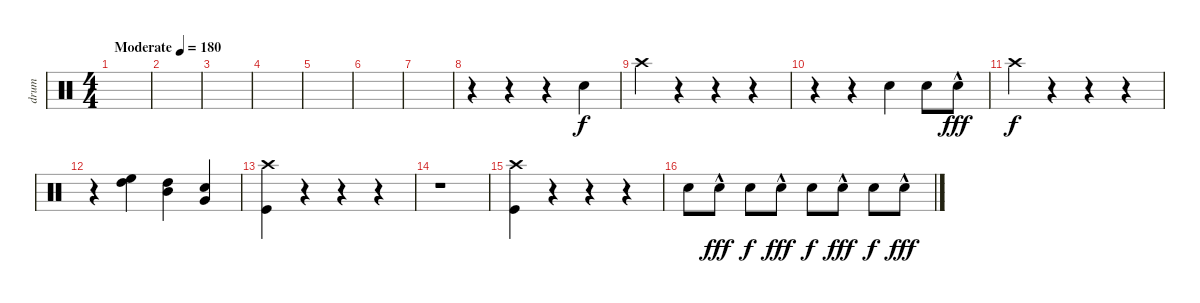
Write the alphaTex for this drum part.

\track ("drum" "drum") {instrument percussion}
\staff {score}
\articulation defaults
\ts (4 4)
\tempo (180 "Moderate")
\clef neutral
\ks c
|
|
|
|
|
|
|
r.4 r.4 r.4 "Snare (hit) 2".4 |
"Crash high (hit)".4 r.4 r.4 r.4 |
r.4 r.4 "Snare (hit) 2".4 "Snare (hit) 2".8 "Snare (hit) 2"{hac}.8{dy fff} |
"Crash high (hit)".4{dy f} r.4 r.4 r.4 |
r.4 ("High Floor Tom (hit)" "High Tom (hit)").4 ("Mid Tom (hit)" "High Tom (hit)").4 ("Snare (hit) 2" "Very Low Tom (hit)").4 |
("Kick (hit)" "Crash high (hit)").4 r.4 r.4 r.4 |
r.1 |
("Kick (hit)" "Crash high (hit)").4 r.4 r.4 r.4 |
"Snare (hit) 2".8 "Snare (hit) 2"{hac}.8{dy fff} "Snare (hit) 2".8{dy f} "Snare (hit) 2"{hac}.8{dy fff} "Snare (hit) 2".8{dy f} "Snare (hit) 2"{hac}.8{dy fff} "Snare (hit) 2".8{dy f} "Snare (hit) 2"{hac}.8{dy fff}
